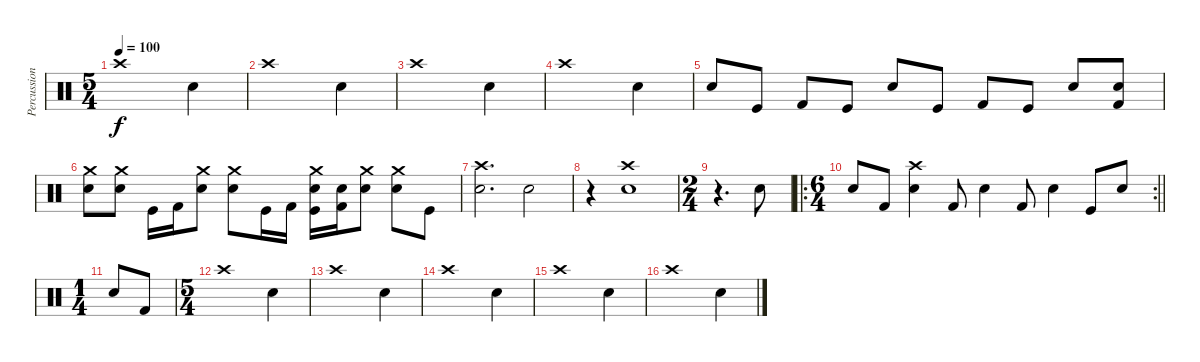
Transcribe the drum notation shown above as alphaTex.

\track ("Percussion" "Percussion") {instrument percussion}
\staff {score}
\articulation defaults
\ts (5 4)
\tempo 100
\clef neutral
\ks c "Crash high (hit)".1{dy f} "Snare (hit) 2".4
|
"Crash high (hit)".1 "Snare (hit) 2".4 |
"Crash high (hit)".1 "Snare (hit) 2".4 |
"Crash high (hit)".1 "Snare (hit) 2".4 |
"Snare (hit) 2".8 "Kick (hit)".8 "Kick (hit) 2".8 "Kick (hit)".8 "Snare (hit) 2".8 "Kick (hit)".8 "Kick (hit) 2".8 "Kick (hit)".8 "Snare (hit) 2".8 ("Snare (hit) 2" "Kick (hit) 2").8 |
("Crash medium (hit)" "Snare (hit) 2").8 ("Crash medium (hit)" "Snare (hit) 2").8 "Kick (hit)".16 "Kick (hit) 2".16 ("Crash medium (hit)" "Snare (hit) 2").8 ("Crash medium (hit)" "Snare (hit) 2").8 "Kick (hit)".16 "Kick (hit) 2".16 ("Crash medium (hit)" "Snare (hit) 2" "Kick (hit)").16 ("Snare (hit) 2" "Kick (hit) 2").16 ("Crash medium (hit)" "Snare (hit) 2").8 ("Crash medium (hit)" "Snare (hit) 2").8 "Kick (hit)".8 |
("Crash high (hit)" "Snare (hit) 2").2{d} "Snare (hit) 2".2 |
r.4 ("Crash high (hit)" "Snare (hit) 2").1 |
\ts (2 4)
r.4{d} "Snare (hit) 2".8 |
\ro
\rc 2
\ts (6 4)
\barLineRight lightlight "Snare (hit) 2".8 "Kick (hit) 2".8
("Crash high (hit)" "Snare (hit) 2").4 "Kick (hit) 2".8 "Snare (hit) 2".4 "Kick (hit) 2".8 "Snare (hit) 2".4 "Kick (hit)".8 "Snare (hit) 2".8 |
\ts (1 4)
"Snare (hit) 2".8 "Kick (hit) 2".8 |
\ts (5 4)
"Crash high (hit)".1 "Snare (hit) 2".4 |
"Crash high (hit)".1 "Snare (hit) 2".4 |
"Crash high (hit)".1 "Snare (hit) 2".4 |
"Crash high (hit)".1 "Snare (hit) 2".4 |
"Crash high (hit)".1 "Snare (hit) 2".4
